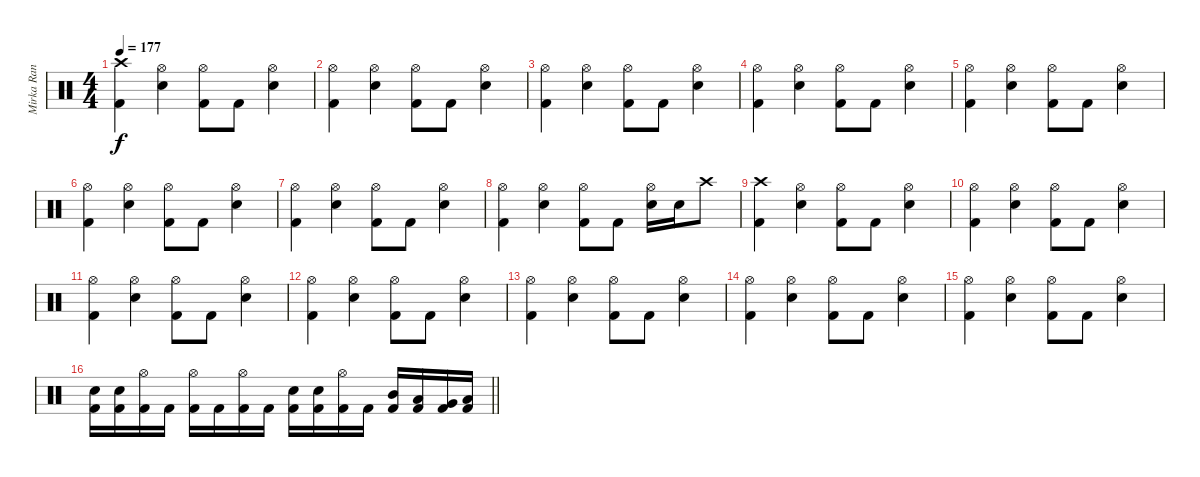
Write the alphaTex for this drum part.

\track (" Mirka Rantanen" " Mirka Ran") {instrument percussion}
\staff {score}
\articulation defaults
\ts (4 4)
\tempo 177
\clef neutral
\ks c
("Crash high (hit)" "Kick (hit) 2").4{dy f} ("Hi-Hat (open)" "Electric Snare (hit)").4 ("Hi-Hat (open)" "Kick (hit) 2").8 "Kick (hit) 2".8 ("Hi-Hat (open)" "Electric Snare (hit)").4 |
("Hi-Hat (open)" "Kick (hit) 2").4 ("Hi-Hat (open)" "Electric Snare (hit)").4 ("Hi-Hat (open)" "Kick (hit) 2").8 "Kick (hit) 2".8 ("Hi-Hat (open)" "Electric Snare (hit)").4 |
("Hi-Hat (open)" "Kick (hit) 2").4 ("Hi-Hat (open)" "Electric Snare (hit)").4 ("Hi-Hat (open)" "Kick (hit) 2").8 "Kick (hit) 2".8 ("Hi-Hat (open)" "Electric Snare (hit)").4 |
("Hi-Hat (open)" "Kick (hit) 2").4 ("Hi-Hat (open)" "Electric Snare (hit)").4 ("Hi-Hat (open)" "Kick (hit) 2").8 "Kick (hit) 2".8 ("Hi-Hat (open)" "Electric Snare (hit)").4 |
("Hi-Hat (open)" "Kick (hit) 2").4 ("Hi-Hat (open)" "Electric Snare (hit)").4 ("Hi-Hat (open)" "Kick (hit) 2").8 "Kick (hit) 2".8 ("Hi-Hat (open)" "Electric Snare (hit)").4 |
("Hi-Hat (open)" "Kick (hit) 2").4 ("Hi-Hat (open)" "Electric Snare (hit)").4 ("Hi-Hat (open)" "Kick (hit) 2").8 "Kick (hit) 2".8 ("Hi-Hat (open)" "Electric Snare (hit)").4 |
("Hi-Hat (open)" "Kick (hit) 2").4 ("Hi-Hat (open)" "Electric Snare (hit)").4 ("Hi-Hat (open)" "Kick (hit) 2").8 "Kick (hit) 2".8 ("Hi-Hat (open)" "Electric Snare (hit)").4 |
("Hi-Hat (open)" "Kick (hit) 2").4 ("Hi-Hat (open)" "Electric Snare (hit)").4 ("Hi-Hat (open)" "Kick (hit) 2").8 "Kick (hit) 2".8 ("Hi-Hat (open)" "Electric Snare (hit)").16 "Electric Snare (hit)".16 "Crash high (hit)".8 |
("Crash high (hit)" "Kick (hit) 2").4 ("Hi-Hat (open)" "Electric Snare (hit)").4 ("Hi-Hat (open)" "Kick (hit) 2").8 "Kick (hit) 2".8 ("Hi-Hat (open)" "Electric Snare (hit)").4 |
("Hi-Hat (open)" "Kick (hit) 2").4 ("Hi-Hat (open)" "Electric Snare (hit)").4 ("Hi-Hat (open)" "Kick (hit) 2").8 "Kick (hit) 2".8 ("Hi-Hat (open)" "Electric Snare (hit)").4 |
("Hi-Hat (open)" "Kick (hit) 2").4 ("Hi-Hat (open)" "Electric Snare (hit)").4 ("Hi-Hat (open)" "Kick (hit) 2").8 "Kick (hit) 2".8 ("Hi-Hat (open)" "Electric Snare (hit)").4 |
("Hi-Hat (open)" "Kick (hit) 2").4 ("Hi-Hat (open)" "Electric Snare (hit)").4 ("Hi-Hat (open)" "Kick (hit) 2").8 "Kick (hit) 2".8 ("Hi-Hat (open)" "Electric Snare (hit)").4 |
("Hi-Hat (open)" "Kick (hit) 2").4 ("Hi-Hat (open)" "Electric Snare (hit)").4 ("Hi-Hat (open)" "Kick (hit) 2").8 "Kick (hit) 2".8 ("Hi-Hat (open)" "Electric Snare (hit)").4 |
("Hi-Hat (open)" "Kick (hit) 2").4 ("Hi-Hat (open)" "Electric Snare (hit)").4 ("Hi-Hat (open)" "Kick (hit) 2").8 "Kick (hit) 2".8 ("Hi-Hat (open)" "Electric Snare (hit)").4 |
("Hi-Hat (open)" "Kick (hit) 2").4 ("Hi-Hat (open)" "Electric Snare (hit)").4 ("Hi-Hat (open)" "Kick (hit) 2").8 "Kick (hit) 2".8 ("Hi-Hat (open)" "Electric Snare (hit)").4 |
\barLineRight lightlight
("Electric Snare (hit)" "Kick (hit) 2").16 ("Electric Snare (hit)" "Kick (hit) 2").16 ("Hi-Hat (open)" "Kick (hit) 2").16 "Kick (hit) 2".16 ("Hi-Hat (open)" "Kick (hit) 2").16 "Kick (hit) 2".16 ("Hi-Hat (open)" "Kick (hit) 2").16 "Kick (hit) 2".16 ("Electric Snare (hit)" "Kick (hit) 2").16 ("Electric Snare (hit)" "Kick (hit) 2").16 ("Hi-Hat (open)" "Kick (hit) 2").16 "Kick (hit) 2".16 ("Mid Tom (hit)" "Kick (hit) 2").16 ("Low Tom (hit)" "Kick (hit) 2").16 ("Very Low Tom (hit)" "Kick (hit) 2").16 ("Low Floor Tom (hit)" "Kick (hit) 2").16
